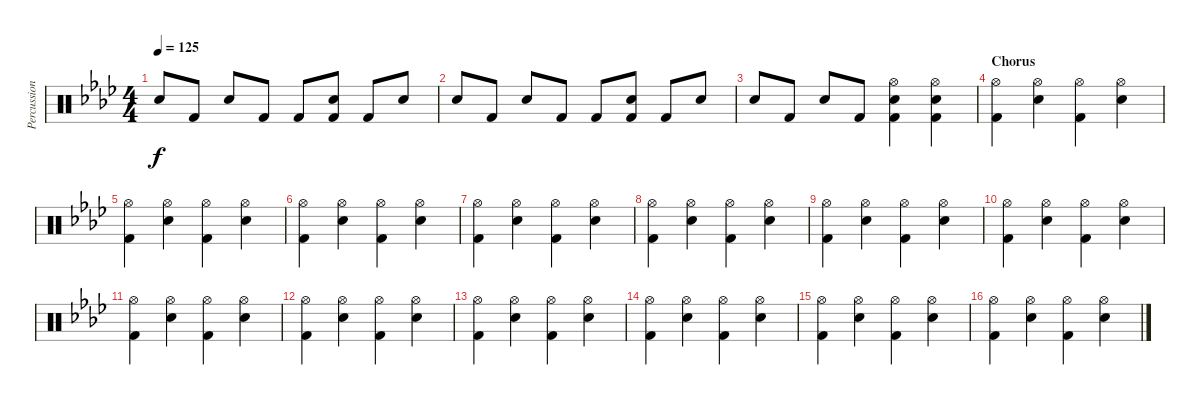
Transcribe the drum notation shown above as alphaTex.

\track ("Percussion" "Percussion") {instrument percussion}
\staff {score}
\articulation defaults
\ts (4 4)
\tempo 125
\clef neutral
\ks fminor "Snare (hit) 2".8{dy f} "Kick (hit) 2".8 "Snare (hit) 2".8 "Kick (hit) 2".8 "Kick (hit) 2".8
("Snare (hit) 2" "Kick (hit) 2").8 "Kick (hit) 2".8 "Snare (hit) 2".8 |
"Snare (hit) 2".8 "Kick (hit) 2".8 "Snare (hit) 2".8 "Kick (hit) 2".8 "Kick (hit) 2".8 ("Snare (hit) 2" "Kick (hit) 2").8 "Kick (hit) 2".8 "Snare (hit) 2".8 |
"Snare (hit) 2".8 "Kick (hit) 2".8 "Snare (hit) 2".8 "Kick (hit) 2".8 ("Hi-Hat (open)" "Snare (hit) 2" "Kick (hit) 2").4 ("Hi-Hat (open)" "Snare (hit) 2" "Kick (hit) 2").4 |
\section ("" "Chorus")
("Hi-Hat (open)" "Kick (hit) 2").4 ("Hi-Hat (open)" "Snare (hit) 2").4 ("Hi-Hat (open)" "Kick (hit) 2").4 ("Hi-Hat (open)" "Snare (hit) 2").4 |
("Hi-Hat (open)" "Kick (hit) 2").4 ("Hi-Hat (open)" "Snare (hit) 2").4 ("Hi-Hat (open)" "Kick (hit) 2").4 ("Hi-Hat (open)" "Snare (hit) 2").4 |
("Hi-Hat (open)" "Kick (hit) 2").4 ("Hi-Hat (open)" "Snare (hit) 2").4 ("Hi-Hat (open)" "Kick (hit) 2").4 ("Hi-Hat (open)" "Snare (hit) 2").4 |
("Hi-Hat (open)" "Kick (hit) 2").4 ("Hi-Hat (open)" "Snare (hit) 2").4 ("Hi-Hat (open)" "Kick (hit) 2").4 ("Hi-Hat (open)" "Snare (hit) 2").4 |
("Hi-Hat (open)" "Kick (hit) 2").4 ("Hi-Hat (open)" "Snare (hit) 2").4 ("Hi-Hat (open)" "Kick (hit) 2").4 ("Hi-Hat (open)" "Snare (hit) 2").4 |
("Hi-Hat (open)" "Kick (hit) 2").4 ("Hi-Hat (open)" "Snare (hit) 2").4 ("Hi-Hat (open)" "Kick (hit) 2").4 ("Hi-Hat (open)" "Snare (hit) 2").4 |
("Hi-Hat (open)" "Kick (hit) 2").4 ("Hi-Hat (open)" "Snare (hit) 2").4 ("Hi-Hat (open)" "Kick (hit) 2").4 ("Hi-Hat (open)" "Snare (hit) 2").4 |
("Hi-Hat (open)" "Kick (hit) 2").4 ("Hi-Hat (open)" "Snare (hit) 2").4 ("Hi-Hat (open)" "Kick (hit) 2").4 ("Hi-Hat (open)" "Snare (hit) 2").4 |
("Hi-Hat (open)" "Kick (hit) 2").4 ("Hi-Hat (open)" "Snare (hit) 2").4 ("Hi-Hat (open)" "Kick (hit) 2").4 ("Hi-Hat (open)" "Snare (hit) 2").4 |
("Hi-Hat (open)" "Kick (hit) 2").4 ("Hi-Hat (open)" "Snare (hit) 2").4 ("Hi-Hat (open)" "Kick (hit) 2").4 ("Hi-Hat (open)" "Snare (hit) 2").4 |
("Hi-Hat (open)" "Kick (hit) 2").4 ("Hi-Hat (open)" "Snare (hit) 2").4 ("Hi-Hat (open)" "Kick (hit) 2").4 ("Hi-Hat (open)" "Snare (hit) 2").4 |
("Hi-Hat (open)" "Kick (hit) 2").4 ("Hi-Hat (open)" "Snare (hit) 2").4 ("Hi-Hat (open)" "Kick (hit) 2").4 ("Hi-Hat (open)" "Snare (hit) 2").4 |
("Hi-Hat (open)" "Kick (hit) 2").4 ("Hi-Hat (open)" "Snare (hit) 2").4 ("Hi-Hat (open)" "Kick (hit) 2").4 ("Hi-Hat (open)" "Snare (hit) 2").4
